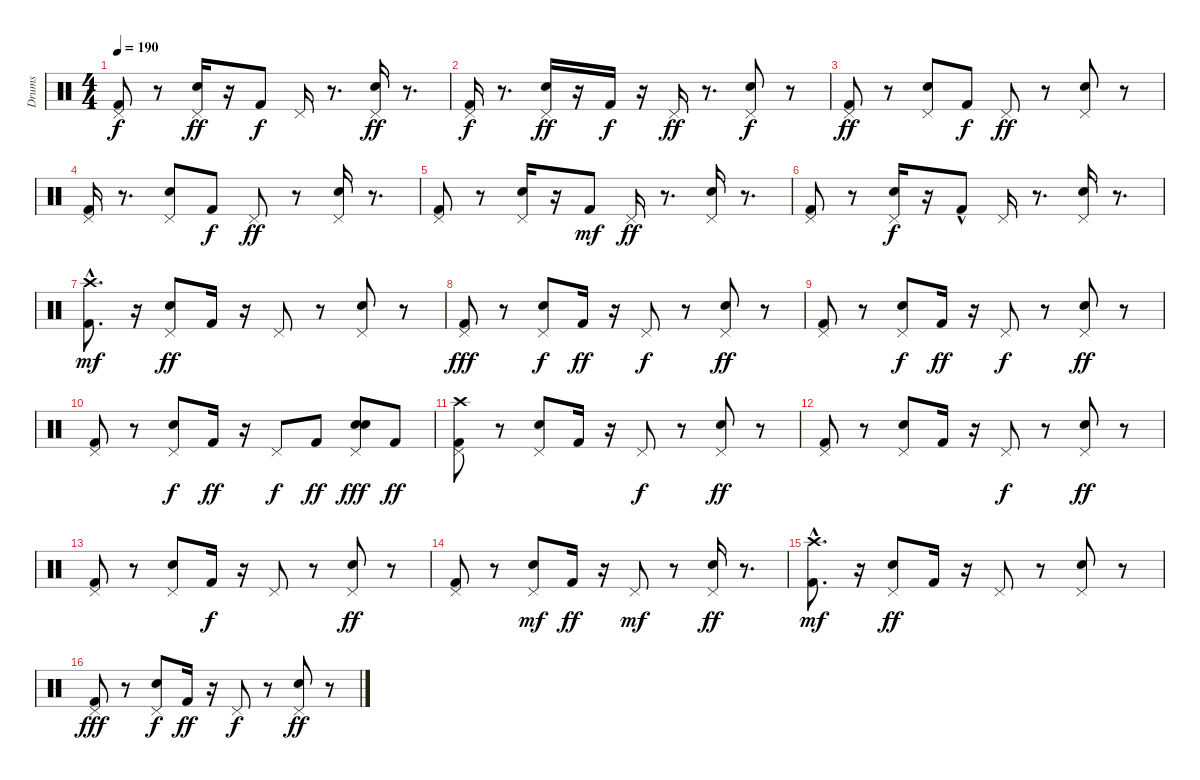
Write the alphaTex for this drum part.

\track ("Drums" "Drums") {instrument percussion}
\staff {score}
\articulation defaults
\ts (4 4)
\tempo 190
\clef neutral
\ks c
("Kick (hit) 2" "Pedal Hi-Hat (hit)").8{dy f} r.8 ("Snare (hit) 2" "Pedal Hi-Hat (hit)").16{dy ff} r.16 "Kick (hit) 2".8{dy f} "Pedal Hi-Hat (hit)".16 r.8{d} ("Snare (hit) 2" "Pedal Hi-Hat (hit)").16{dy ff} r.8{d} |
("Kick (hit) 2" "Pedal Hi-Hat (hit)").16{dy f} r.8{d} ("Snare (hit) 2" "Pedal Hi-Hat (hit)").16{dy ff} r.16 "Kick (hit) 2".16{dy f} r.16 "Pedal Hi-Hat (hit)".16{dy ff} r.8{d} ("Snare (hit) 2" "Pedal Hi-Hat (hit)").8{dy f} r.8 |
("Kick (hit) 2" "Pedal Hi-Hat (hit)").8{dy ff} r.8 ("Snare (hit) 2" "Pedal Hi-Hat (hit)").8 "Kick (hit) 2".8{dy f} "Pedal Hi-Hat (hit)".8{dy ff} r.8 ("Snare (hit) 2" "Pedal Hi-Hat (hit)").8 r.8 |
("Kick (hit) 2" "Pedal Hi-Hat (hit)").16 r.8{d} ("Snare (hit) 2" "Pedal Hi-Hat (hit)").8 "Kick (hit) 2".8{dy f} "Pedal Hi-Hat (hit)".8{dy ff} r.8 ("Snare (hit) 2" "Pedal Hi-Hat (hit)").16 r.8{d} |
("Kick (hit) 2" "Pedal Hi-Hat (hit)").8 r.8 ("Snare (hit) 2" "Pedal Hi-Hat (hit)").16 r.16 "Kick (hit) 2".8{dy mf} "Pedal Hi-Hat (hit)".16{dy ff} r.8{d} ("Snare (hit) 2" "Pedal Hi-Hat (hit)").16 r.8{d} |
("Kick (hit) 2" "Pedal Hi-Hat (hit)").8 r.8 ("Snare (hit) 2" "Pedal Hi-Hat (hit)").16{dy f} r.16 "Kick (hit) 2"{hac}.8 "Pedal Hi-Hat (hit)".16 r.8{d} ("Snare (hit) 2" "Pedal Hi-Hat (hit)").16 r.8{d} |
("Kick (hit) 2"{hac} "Crash high (hit)").8{d dy mf} r.16 ("Snare (hit) 2" "Pedal Hi-Hat (hit)").8{dy ff} "Kick (hit) 2".16 r.16 "Pedal Hi-Hat (hit)".8 r.8 ("Snare (hit) 2" "Pedal Hi-Hat (hit)").8 r.8 |
("Kick (hit) 2" "Pedal Hi-Hat (hit)").8{dy fff} r.8 ("Snare (hit) 2" "Pedal Hi-Hat (hit)").8{dy f} "Kick (hit) 2".16{dy ff} r.16 "Pedal Hi-Hat (hit)".8{dy f} r.8 ("Snare (hit) 2" "Pedal Hi-Hat (hit)").8{dy ff} r.8 |
("Kick (hit) 2" "Pedal Hi-Hat (hit)").8 r.8 ("Snare (hit) 2" "Pedal Hi-Hat (hit)").8{dy f} "Kick (hit) 2".16{dy ff} r.16 "Pedal Hi-Hat (hit)".8{dy f} r.8 ("Snare (hit) 2" "Pedal Hi-Hat (hit)").8{dy ff} r.8 |
("Kick (hit) 2" "Pedal Hi-Hat (hit)").8 r.8 ("Snare (hit) 2" "Pedal Hi-Hat (hit)").8{dy f} "Kick (hit) 2".16{dy ff} r.16 "Pedal Hi-Hat (hit)".8{dy f} "Kick (hit) 2".8{dy ff} ("Electric Snare (hit)" "Snare (hit) 2" "Pedal Hi-Hat (hit)").8{dy fff} "Kick (hit) 2".8{dy ff} |
("Pedal Hi-Hat (hit)" "Crash high (hit)" "Kick (hit) 2").8 r.8 ("Pedal Hi-Hat (hit)" "Snare (hit) 2").8 "Kick (hit) 2".16 r.16 "Pedal Hi-Hat (hit)".8{dy f} r.8 ("Snare (hit) 2" "Pedal Hi-Hat (hit)").8{dy ff} r.8 |
("Kick (hit) 2" "Pedal Hi-Hat (hit)").8 r.8 ("Snare (hit) 2" "Pedal Hi-Hat (hit)").8 "Kick (hit) 2".16 r.16 "Pedal Hi-Hat (hit)".8{dy f} r.8 ("Pedal Hi-Hat (hit)" "Snare (hit) 2").8{dy ff} r.8 |
("Pedal Hi-Hat (hit)" "Kick (hit) 2").8 r.8 ("Snare (hit) 2" "Pedal Hi-Hat (hit)").8 "Kick (hit) 2".16{dy f} r.16 "Pedal Hi-Hat (hit)".8 r.8 ("Snare (hit) 2" "Pedal Hi-Hat (hit)").8{dy ff} r.8 |
("Kick (hit) 2" "Pedal Hi-Hat (hit)").8 r.8 ("Snare (hit) 2" "Pedal Hi-Hat (hit)").8{dy mf} "Kick (hit) 2".16{dy ff} r.16 "Pedal Hi-Hat (hit)".8{dy mf} r.8 ("Pedal Hi-Hat (hit)" "Snare (hit) 2").16{dy ff} r.8{d} |
("Kick (hit) 2"{hac} "Crash high (hit)").8{d dy mf} r.16 ("Snare (hit) 2" "Pedal Hi-Hat (hit)").8{dy ff} "Kick (hit) 2".16 r.16 "Pedal Hi-Hat (hit)".8 r.8 ("Snare (hit) 2" "Pedal Hi-Hat (hit)").8 r.8 |
("Kick (hit) 2" "Pedal Hi-Hat (hit)").8{dy fff} r.8 ("Snare (hit) 2" "Pedal Hi-Hat (hit)").8{dy f} "Kick (hit) 2".16{dy ff} r.16 "Pedal Hi-Hat (hit)".8{dy f} r.8 ("Snare (hit) 2" "Pedal Hi-Hat (hit)").8{dy ff} r.8
